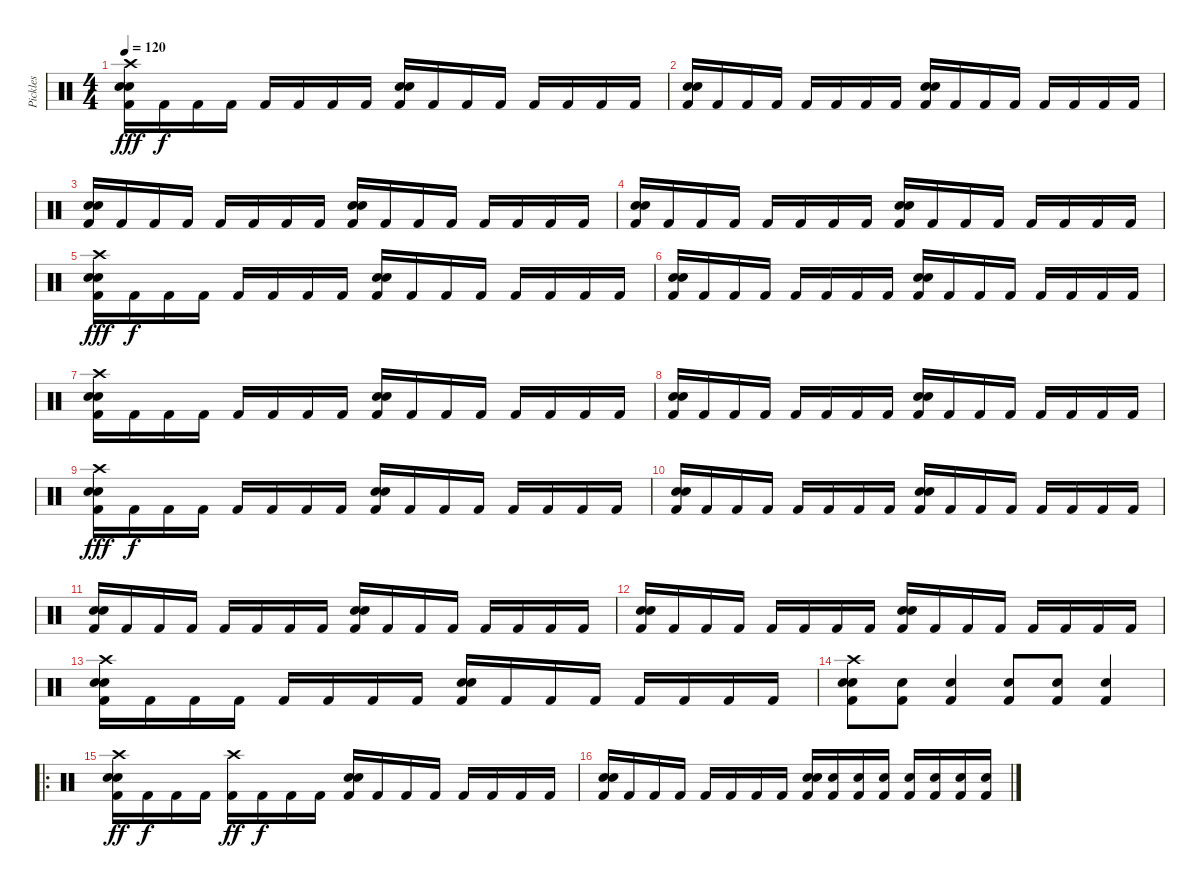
\track ("Pickles" "Pickles") {instrument percussion}
\staff {score}
\articulation defaults
\ts (4 4)
\tempo 120
\clef neutral
\ks c
("Crash high (hit)" "Electric Snare (hit)" "Snare (hit) 2" "Kick (hit) 2").16{dy fff} "Kick (hit) 2".16{dy f} "Kick (hit) 2".16 "Kick (hit) 2".16 "Kick (hit) 2".16 "Kick (hit) 2".16 "Kick (hit) 2".16 "Kick (hit) 2".16 ("Electric Snare (hit)" "Snare (hit) 2" "Kick (hit) 2").16 "Kick (hit) 2".16 "Kick (hit) 2".16 "Kick (hit) 2".16 "Kick (hit) 2".16 "Kick (hit) 2".16 "Kick (hit) 2".16 "Kick (hit) 2".16 |
("Electric Snare (hit)" "Snare (hit) 2" "Kick (hit) 2").16 "Kick (hit) 2".16 "Kick (hit) 2".16 "Kick (hit) 2".16 "Kick (hit) 2".16 "Kick (hit) 2".16 "Kick (hit) 2".16 "Kick (hit) 2".16 ("Electric Snare (hit)" "Snare (hit) 2" "Kick (hit) 2").16 "Kick (hit) 2".16 "Kick (hit) 2".16 "Kick (hit) 2".16 "Kick (hit) 2".16 "Kick (hit) 2".16 "Kick (hit) 2".16 "Kick (hit) 2".16 |
("Electric Snare (hit)" "Snare (hit) 2" "Kick (hit) 2").16 "Kick (hit) 2".16 "Kick (hit) 2".16 "Kick (hit) 2".16 "Kick (hit) 2".16 "Kick (hit) 2".16 "Kick (hit) 2".16 "Kick (hit) 2".16 ("Electric Snare (hit)" "Snare (hit) 2" "Kick (hit) 2").16 "Kick (hit) 2".16 "Kick (hit) 2".16 "Kick (hit) 2".16 "Kick (hit) 2".16 "Kick (hit) 2".16 "Kick (hit) 2".16 "Kick (hit) 2".16 |
("Electric Snare (hit)" "Snare (hit) 2" "Kick (hit) 2").16 "Kick (hit) 2".16 "Kick (hit) 2".16 "Kick (hit) 2".16 "Kick (hit) 2".16 "Kick (hit) 2".16 "Kick (hit) 2".16 "Kick (hit) 2".16 ("Electric Snare (hit)" "Snare (hit) 2" "Kick (hit) 2").16 "Kick (hit) 2".16 "Kick (hit) 2".16 "Kick (hit) 2".16 "Kick (hit) 2".16 "Kick (hit) 2".16 "Kick (hit) 2".16 "Kick (hit) 2".16 |
("Crash high (hit)" "Electric Snare (hit)" "Snare (hit) 2" "Kick (hit) 2").16{dy fff} "Kick (hit) 2".16{dy f} "Kick (hit) 2".16 "Kick (hit) 2".16 "Kick (hit) 2".16 "Kick (hit) 2".16 "Kick (hit) 2".16 "Kick (hit) 2".16 ("Electric Snare (hit)" "Snare (hit) 2" "Kick (hit) 2").16 "Kick (hit) 2".16 "Kick (hit) 2".16 "Kick (hit) 2".16 "Kick (hit) 2".16 "Kick (hit) 2".16 "Kick (hit) 2".16 "Kick (hit) 2".16 |
("Electric Snare (hit)" "Snare (hit) 2" "Kick (hit) 2").16 "Kick (hit) 2".16 "Kick (hit) 2".16 "Kick (hit) 2".16 "Kick (hit) 2".16 "Kick (hit) 2".16 "Kick (hit) 2".16 "Kick (hit) 2".16 ("Electric Snare (hit)" "Snare (hit) 2" "Kick (hit) 2").16 "Kick (hit) 2".16 "Kick (hit) 2".16 "Kick (hit) 2".16 "Kick (hit) 2".16 "Kick (hit) 2".16 "Kick (hit) 2".16 "Kick (hit) 2".16 |
("Crash high (hit)" "Electric Snare (hit)" "Snare (hit) 2" "Kick (hit) 2").16 "Kick (hit) 2".16 "Kick (hit) 2".16 "Kick (hit) 2".16 "Kick (hit) 2".16 "Kick (hit) 2".16 "Kick (hit) 2".16 "Kick (hit) 2".16 ("Electric Snare (hit)" "Snare (hit) 2" "Kick (hit) 2").16 "Kick (hit) 2".16 "Kick (hit) 2".16 "Kick (hit) 2".16 "Kick (hit) 2".16 "Kick (hit) 2".16 "Kick (hit) 2".16 "Kick (hit) 2".16 |
("Electric Snare (hit)" "Snare (hit) 2" "Kick (hit) 2").16 "Kick (hit) 2".16 "Kick (hit) 2".16 "Kick (hit) 2".16 "Kick (hit) 2".16 "Kick (hit) 2".16 "Kick (hit) 2".16 "Kick (hit) 2".16 ("Electric Snare (hit)" "Snare (hit) 2" "Kick (hit) 2").16 "Kick (hit) 2".16 "Kick (hit) 2".16 "Kick (hit) 2".16 "Kick (hit) 2".16 "Kick (hit) 2".16 "Kick (hit) 2".16 "Kick (hit) 2".16 |
("Crash high (hit)" "Electric Snare (hit)" "Snare (hit) 2" "Kick (hit) 2").16{dy fff} "Kick (hit) 2".16{dy f} "Kick (hit) 2".16 "Kick (hit) 2".16 "Kick (hit) 2".16 "Kick (hit) 2".16 "Kick (hit) 2".16 "Kick (hit) 2".16 ("Electric Snare (hit)" "Snare (hit) 2" "Kick (hit) 2").16 "Kick (hit) 2".16 "Kick (hit) 2".16 "Kick (hit) 2".16 "Kick (hit) 2".16 "Kick (hit) 2".16 "Kick (hit) 2".16 "Kick (hit) 2".16 |
("Electric Snare (hit)" "Snare (hit) 2" "Kick (hit) 2").16 "Kick (hit) 2".16 "Kick (hit) 2".16 "Kick (hit) 2".16 "Kick (hit) 2".16 "Kick (hit) 2".16 "Kick (hit) 2".16 "Kick (hit) 2".16 ("Electric Snare (hit)" "Snare (hit) 2" "Kick (hit) 2").16 "Kick (hit) 2".16 "Kick (hit) 2".16 "Kick (hit) 2".16 "Kick (hit) 2".16 "Kick (hit) 2".16 "Kick (hit) 2".16 "Kick (hit) 2".16 |
("Electric Snare (hit)" "Snare (hit) 2" "Kick (hit) 2").16 "Kick (hit) 2".16 "Kick (hit) 2".16 "Kick (hit) 2".16 "Kick (hit) 2".16 "Kick (hit) 2".16 "Kick (hit) 2".16 "Kick (hit) 2".16 ("Electric Snare (hit)" "Snare (hit) 2" "Kick (hit) 2").16 "Kick (hit) 2".16 "Kick (hit) 2".16 "Kick (hit) 2".16 "Kick (hit) 2".16 "Kick (hit) 2".16 "Kick (hit) 2".16 "Kick (hit) 2".16 |
("Electric Snare (hit)" "Snare (hit) 2" "Kick (hit) 2").16 "Kick (hit) 2".16 "Kick (hit) 2".16 "Kick (hit) 2".16 "Kick (hit) 2".16 "Kick (hit) 2".16 "Kick (hit) 2".16 "Kick (hit) 2".16 ("Electric Snare (hit)" "Snare (hit) 2" "Kick (hit) 2").16 "Kick (hit) 2".16 "Kick (hit) 2".16 "Kick (hit) 2".16 "Kick (hit) 2".16 "Kick (hit) 2".16 "Kick (hit) 2".16 "Kick (hit) 2".16 |
("Crash high (hit)" "Electric Snare (hit)" "Snare (hit) 2" "Kick (hit) 2").16 "Kick (hit) 2".16 "Kick (hit) 2".16 "Kick (hit) 2".16 "Kick (hit) 2".16 "Kick (hit) 2".16 "Kick (hit) 2".16 "Kick (hit) 2".16 ("Electric Snare (hit)" "Snare (hit) 2" "Kick (hit) 2").16 "Kick (hit) 2".16 "Kick (hit) 2".16 "Kick (hit) 2".16 "Kick (hit) 2".16 "Kick (hit) 2".16 "Kick (hit) 2".16 "Kick (hit) 2".16 |
("Crash high (hit)" "Electric Snare (hit)" "Snare (hit) 2" "Kick (hit) 2").8 ("Snare (hit) 2" "Kick (hit) 2").8 ("Electric Snare (hit)" "Kick (hit) 2").4 ("Snare (hit) 2" "Kick (hit) 2").8 ("Snare (hit) 2" "Kick (hit) 2").8 ("Electric Snare (hit)" "Kick (hit) 2").4 |
\ro
("Crash high (hit)" "Electric Snare (hit)" "Snare (hit) 2" "Kick (hit) 2").16{dy ff} "Kick (hit) 2".16{dy f} "Kick (hit) 2".16 "Kick (hit) 2".16 ("Crash high (hit)" "Kick (hit) 2").16{dy ff} "Kick (hit) 2".16{dy f} "Kick (hit) 2".16 "Kick (hit) 2".16 ("Electric Snare (hit)" "Snare (hit) 2" "Kick (hit) 2").16 "Kick (hit) 2".16 "Kick (hit) 2".16 "Kick (hit) 2".16 "Kick (hit) 2".16 "Kick (hit) 2".16 "Kick (hit) 2".16 "Kick (hit) 2".16 |
("Electric Snare (hit)" "Snare (hit) 2" "Kick (hit) 2").16 "Kick (hit) 2".16 "Kick (hit) 2".16 "Kick (hit) 2".16 "Kick (hit) 2".16 "Kick (hit) 2".16 "Kick (hit) 2".16 "Kick (hit) 2".16 ("Electric Snare (hit)" "Snare (hit) 2" "Kick (hit) 2").16 ("Snare (hit) 2" "Kick (hit) 2").16 ("Snare (hit) 2" "Kick (hit) 2").16 ("Electric Snare (hit)" "Kick (hit) 2").16 ("Electric Snare (hit)" "Kick (hit) 2").16 ("Snare (hit) 2" "Kick (hit) 2").16 ("Snare (hit) 2" "Kick (hit) 2").16 ("Electric Snare (hit)" "Kick (hit) 2").16
